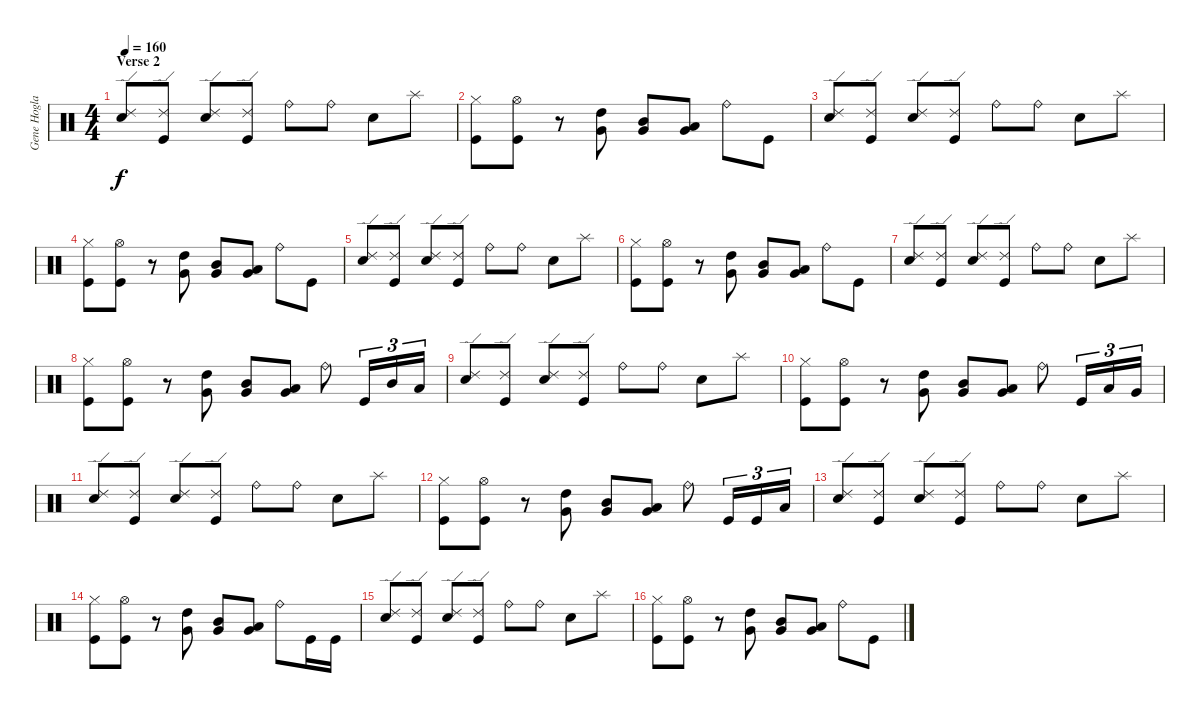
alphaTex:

\track ("Gene Hoglan" "Gene Hogla") {instrument percussion}
\staff {score}
\articulation defaults
\ts (4 4)
\section ("" "Verse 2")
\tempo 160
\clef neutral
\ks c
("Ride (edge) 2" "Electric Snare (hit)").8{dy f} ("Ride (edge) 2" "Kick (hit)").8 ("Ride (edge) 2" "Electric Snare (hit)").8 ("Ride (edge) 2" "Kick (hit)").8 "Ride (bell)".8 "Ride (bell)".8 "Electric Snare (hit)".8 "Splash (hit)".8 |
("Hi-Hat (closed)" "Kick (hit)").8 ("Hi-Hat (open)" "Kick (hit)").8 r.8 ("High Tom (hit)" "Very Low Tom (hit)").8 ("Mid Tom (hit)" "Very Low Tom (hit)").8 ("Low Tom (hit)" "Very Low Tom (hit)").8 "Ride (bell)".8 "Kick (hit)".8 |
("Ride (edge) 2" "Electric Snare (hit)").8 ("Ride (edge) 2" "Kick (hit)").8 ("Ride (edge) 2" "Electric Snare (hit)").8 ("Ride (edge) 2" "Kick (hit)").8 "Ride (bell)".8 "Ride (bell)".8 "Electric Snare (hit)".8 "Splash (hit)".8 |
("Hi-Hat (closed)" "Kick (hit)").8 ("Hi-Hat (open)" "Kick (hit)").8 r.8 ("High Tom (hit)" "Very Low Tom (hit)").8 ("Mid Tom (hit)" "Very Low Tom (hit)").8 ("Low Tom (hit)" "Very Low Tom (hit)").8 "Ride (bell)".8 "Kick (hit)".8 |
("Ride (edge) 2" "Electric Snare (hit)").8 ("Ride (edge) 2" "Kick (hit)").8 ("Ride (edge) 2" "Electric Snare (hit)").8 ("Ride (edge) 2" "Kick (hit)").8 "Ride (bell)".8 "Ride (bell)".8 "Electric Snare (hit)".8 "Splash (hit)".8 |
("Hi-Hat (closed)" "Kick (hit)").8 ("Hi-Hat (open)" "Kick (hit)").8 r.8 ("High Tom (hit)" "Very Low Tom (hit)").8 ("Mid Tom (hit)" "Very Low Tom (hit)").8 ("Low Tom (hit)" "Very Low Tom (hit)").8 "Ride (bell)".8 "Kick (hit)".8 |
("Ride (edge) 2" "Electric Snare (hit)").8 ("Ride (edge) 2" "Kick (hit)").8 ("Ride (edge) 2" "Electric Snare (hit)").8 ("Ride (edge) 2" "Kick (hit)").8 "Ride (bell)".8 "Ride (bell)".8 "Electric Snare (hit)".8 "Splash (hit)".8 |
("Hi-Hat (closed)" "Kick (hit)").8 ("Hi-Hat (open)" "Kick (hit)").8 r.8 ("High Tom (hit)" "Very Low Tom (hit)").8 ("Mid Tom (hit)" "Very Low Tom (hit)").8 ("Low Tom (hit)" "Very Low Tom (hit)").8 "Ride (bell)".8 "Kick (hit)".16{tu (3 2)} "Mid Tom (hit)".16{tu (3 2)} "Low Tom (hit)".16{tu (3 2)} |
("Ride (edge) 2" "Electric Snare (hit)").8 ("Ride (edge) 2" "Kick (hit)").8 ("Ride (edge) 2" "Electric Snare (hit)").8 ("Ride (edge) 2" "Kick (hit)").8 "Ride (bell)".8 "Ride (bell)".8 "Electric Snare (hit)".8 "Splash (hit)".8 |
("Hi-Hat (closed)" "Kick (hit)").8 ("Hi-Hat (open)" "Kick (hit)").8 r.8 ("High Tom (hit)" "Very Low Tom (hit)").8 ("Mid Tom (hit)" "Very Low Tom (hit)").8 ("Low Tom (hit)" "Very Low Tom (hit)").8 "Ride (bell)".8 "Kick (hit)".16{tu (3 2)} "Low Tom (hit)".16{tu (3 2)} "Very Low Tom (hit)".16{tu (3 2)} |
("Ride (edge) 2" "Electric Snare (hit)").8 ("Ride (edge) 2" "Kick (hit)").8 ("Ride (edge) 2" "Electric Snare (hit)").8 ("Ride (edge) 2" "Kick (hit)").8 "Ride (bell)".8 "Ride (bell)".8 "Electric Snare (hit)".8 "Splash (hit)".8 |
("Hi-Hat (closed)" "Kick (hit)").8 ("Hi-Hat (open)" "Kick (hit)").8 r.8 ("High Tom (hit)" "Very Low Tom (hit)").8 ("Mid Tom (hit)" "Very Low Tom (hit)").8 ("Low Tom (hit)" "Very Low Tom (hit)").8 "Ride (bell)".8 "Kick (hit)".16{tu (3 2)} "Kick (hit)".16{tu (3 2)} "Low Tom (hit)".16{tu (3 2)} |
("Ride (edge) 2" "Electric Snare (hit)").8 ("Ride (edge) 2" "Kick (hit)").8 ("Ride (edge) 2" "Electric Snare (hit)").8 ("Ride (edge) 2" "Kick (hit)").8 "Ride (bell)".8 "Ride (bell)".8 "Electric Snare (hit)".8 "Splash (hit)".8 |
("Hi-Hat (closed)" "Kick (hit)").8 ("Hi-Hat (open)" "Kick (hit)").8 r.8 ("High Tom (hit)" "Very Low Tom (hit)").8 ("Mid Tom (hit)" "Very Low Tom (hit)").8 ("Low Tom (hit)" "Very Low Tom (hit)").8 "Ride (bell)".8 "Kick (hit)".16 "Kick (hit)".16 |
("Ride (edge) 2" "Electric Snare (hit)").8 ("Ride (edge) 2" "Kick (hit)").8 ("Ride (edge) 2" "Electric Snare (hit)").8 ("Ride (edge) 2" "Kick (hit)").8 "Ride (bell)".8 "Ride (bell)".8 "Electric Snare (hit)".8 "Splash (hit)".8 |
("Hi-Hat (closed)" "Kick (hit)").8 ("Hi-Hat (open)" "Kick (hit)").8 r.8 ("High Tom (hit)" "Very Low Tom (hit)").8 ("Mid Tom (hit)" "Very Low Tom (hit)").8 ("Low Tom (hit)" "Very Low Tom (hit)").8 "Ride (bell)".8 "Kick (hit)".8
